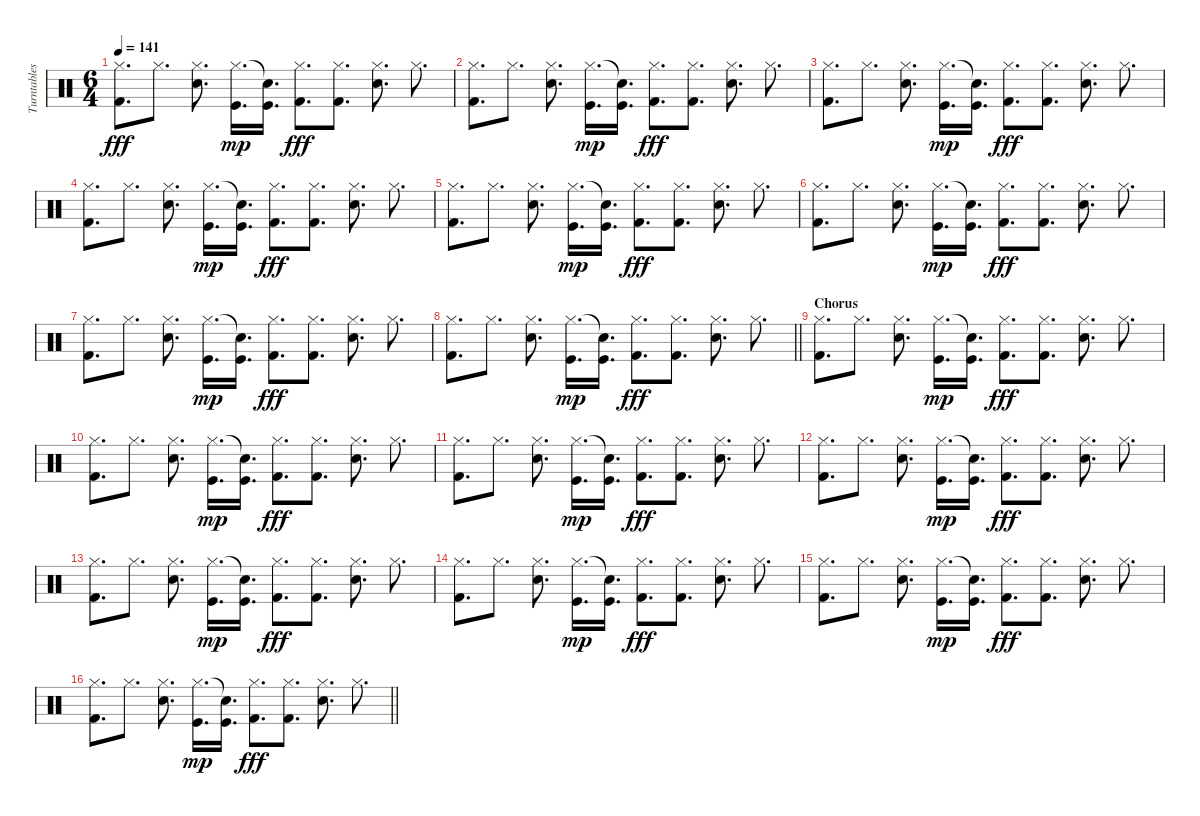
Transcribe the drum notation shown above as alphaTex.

\track ("Turntables" "Turntables") {instrument percussion}
\staff {score}
\articulation defaults
\ts (6 4)
\tempo 141
\clef neutral
\ks c
("Hi-Hat (closed)" "Kick (hit) 2").8{d dy fff} "Hi-Hat (closed)".8{d} ("Hi-Hat (closed)" "Electric Snare (hit)").8{d} ("Hi-Hat (closed)" "Kick (hit)").16{d dy mp} ("Snare (hit)"{t} "Kick (hit)").16{d} ("Hi-Hat (closed)" "Kick (hit) 2").8{d dy fff} ("Hi-Hat (closed)" "Kick (hit) 2").8{d} ("Hi-Hat (closed)" "Electric Snare (hit)").8{d} "Hi-Hat (closed)".8{d} |
("Hi-Hat (closed)" "Kick (hit) 2").8{d} "Hi-Hat (closed)".8{d} ("Hi-Hat (closed)" "Electric Snare (hit)").8{d} ("Hi-Hat (closed)" "Kick (hit)").16{d dy mp} ("Snare (hit)"{t} "Kick (hit)").16{d} ("Hi-Hat (closed)" "Kick (hit) 2").8{d dy fff} ("Hi-Hat (closed)" "Kick (hit) 2").8{d} ("Hi-Hat (closed)" "Electric Snare (hit)").8{d} "Hi-Hat (closed)".8{d} |
("Hi-Hat (closed)" "Kick (hit) 2").8{d} "Hi-Hat (closed)".8{d} ("Hi-Hat (closed)" "Electric Snare (hit)").8{d} ("Hi-Hat (closed)" "Kick (hit)").16{d dy mp} ("Snare (hit)"{t} "Kick (hit)").16{d} ("Hi-Hat (closed)" "Kick (hit) 2").8{d dy fff} ("Hi-Hat (closed)" "Kick (hit) 2").8{d} ("Hi-Hat (closed)" "Electric Snare (hit)").8{d} "Hi-Hat (closed)".8{d} |
("Hi-Hat (closed)" "Kick (hit) 2").8{d} "Hi-Hat (closed)".8{d} ("Hi-Hat (closed)" "Electric Snare (hit)").8{d} ("Hi-Hat (closed)" "Kick (hit)").16{d dy mp} ("Snare (hit)"{t} "Kick (hit)").16{d} ("Hi-Hat (closed)" "Kick (hit) 2").8{d dy fff} ("Hi-Hat (closed)" "Kick (hit) 2").8{d} ("Hi-Hat (closed)" "Electric Snare (hit)").8{d} "Hi-Hat (closed)".8{d} |
("Hi-Hat (closed)" "Kick (hit) 2").8{d} "Hi-Hat (closed)".8{d} ("Hi-Hat (closed)" "Electric Snare (hit)").8{d} ("Hi-Hat (closed)" "Kick (hit)").16{d dy mp} ("Snare (hit)"{t} "Kick (hit)").16{d} ("Hi-Hat (closed)" "Kick (hit) 2").8{d dy fff} ("Hi-Hat (closed)" "Kick (hit) 2").8{d} ("Hi-Hat (closed)" "Electric Snare (hit)").8{d} "Hi-Hat (closed)".8{d} |
("Hi-Hat (closed)" "Kick (hit) 2").8{d} "Hi-Hat (closed)".8{d} ("Hi-Hat (closed)" "Electric Snare (hit)").8{d} ("Hi-Hat (closed)" "Kick (hit)").16{d dy mp} ("Snare (hit)"{t} "Kick (hit)").16{d} ("Hi-Hat (closed)" "Kick (hit) 2").8{d dy fff} ("Hi-Hat (closed)" "Kick (hit) 2").8{d} ("Hi-Hat (closed)" "Electric Snare (hit)").8{d} "Hi-Hat (closed)".8{d} |
("Hi-Hat (closed)" "Kick (hit) 2").8{d} "Hi-Hat (closed)".8{d} ("Hi-Hat (closed)" "Electric Snare (hit)").8{d} ("Hi-Hat (closed)" "Kick (hit)").16{d dy mp} ("Snare (hit)"{t} "Kick (hit)").16{d} ("Hi-Hat (closed)" "Kick (hit) 2").8{d dy fff} ("Hi-Hat (closed)" "Kick (hit) 2").8{d} ("Hi-Hat (closed)" "Electric Snare (hit)").8{d} "Hi-Hat (closed)".8{d} |
\barLineRight lightlight
("Hi-Hat (closed)" "Kick (hit) 2").8{d} "Hi-Hat (closed)".8{d} ("Hi-Hat (closed)" "Electric Snare (hit)").8{d} ("Hi-Hat (closed)" "Kick (hit)").16{d dy mp} ("Snare (hit)"{t} "Kick (hit)").16{d} ("Hi-Hat (closed)" "Kick (hit) 2").8{d dy fff} ("Hi-Hat (closed)" "Kick (hit) 2").8{d} ("Hi-Hat (closed)" "Electric Snare (hit)").8{d} "Hi-Hat (closed)".8{d} |
\section ("" "Chorus")
("Hi-Hat (closed)" "Kick (hit) 2").8{d} "Hi-Hat (closed)".8{d} ("Hi-Hat (closed)" "Electric Snare (hit)").8{d} ("Hi-Hat (closed)" "Kick (hit)").16{d dy mp} ("Snare (hit)"{t} "Kick (hit)").16{d} ("Hi-Hat (closed)" "Kick (hit) 2").8{d dy fff} ("Hi-Hat (closed)" "Kick (hit) 2").8{d} ("Hi-Hat (closed)" "Electric Snare (hit)").8{d} "Hi-Hat (closed)".8{d} |
("Hi-Hat (closed)" "Kick (hit) 2").8{d} "Hi-Hat (closed)".8{d} ("Hi-Hat (closed)" "Electric Snare (hit)").8{d} ("Hi-Hat (closed)" "Kick (hit)").16{d dy mp} ("Snare (hit)"{t} "Kick (hit)").16{d} ("Hi-Hat (closed)" "Kick (hit) 2").8{d dy fff} ("Hi-Hat (closed)" "Kick (hit) 2").8{d} ("Hi-Hat (closed)" "Electric Snare (hit)").8{d} "Hi-Hat (closed)".8{d} |
("Hi-Hat (closed)" "Kick (hit) 2").8{d} "Hi-Hat (closed)".8{d} ("Hi-Hat (closed)" "Electric Snare (hit)").8{d} ("Hi-Hat (closed)" "Kick (hit)").16{d dy mp} ("Snare (hit)"{t} "Kick (hit)").16{d} ("Hi-Hat (closed)" "Kick (hit) 2").8{d dy fff} ("Hi-Hat (closed)" "Kick (hit) 2").8{d} ("Hi-Hat (closed)" "Electric Snare (hit)").8{d} "Hi-Hat (closed)".8{d} |
("Hi-Hat (closed)" "Kick (hit) 2").8{d} "Hi-Hat (closed)".8{d} ("Hi-Hat (closed)" "Electric Snare (hit)").8{d} ("Hi-Hat (closed)" "Kick (hit)").16{d dy mp} ("Snare (hit)"{t} "Kick (hit)").16{d} ("Hi-Hat (closed)" "Kick (hit) 2").8{d dy fff} ("Hi-Hat (closed)" "Kick (hit) 2").8{d} ("Hi-Hat (closed)" "Electric Snare (hit)").8{d} "Hi-Hat (closed)".8{d} |
("Hi-Hat (closed)" "Kick (hit) 2").8{d} "Hi-Hat (closed)".8{d} ("Hi-Hat (closed)" "Electric Snare (hit)").8{d} ("Hi-Hat (closed)" "Kick (hit)").16{d dy mp} ("Snare (hit)"{t} "Kick (hit)").16{d} ("Hi-Hat (closed)" "Kick (hit) 2").8{d dy fff} ("Hi-Hat (closed)" "Kick (hit) 2").8{d} ("Hi-Hat (closed)" "Electric Snare (hit)").8{d} "Hi-Hat (closed)".8{d} |
("Hi-Hat (closed)" "Kick (hit) 2").8{d} "Hi-Hat (closed)".8{d} ("Hi-Hat (closed)" "Electric Snare (hit)").8{d} ("Hi-Hat (closed)" "Kick (hit)").16{d dy mp} ("Snare (hit)"{t} "Kick (hit)").16{d} ("Hi-Hat (closed)" "Kick (hit) 2").8{d dy fff} ("Hi-Hat (closed)" "Kick (hit) 2").8{d} ("Hi-Hat (closed)" "Electric Snare (hit)").8{d} "Hi-Hat (closed)".8{d} |
("Hi-Hat (closed)" "Kick (hit) 2").8{d} "Hi-Hat (closed)".8{d} ("Hi-Hat (closed)" "Electric Snare (hit)").8{d} ("Hi-Hat (closed)" "Kick (hit)").16{d dy mp} ("Snare (hit)"{t} "Kick (hit)").16{d} ("Hi-Hat (closed)" "Kick (hit) 2").8{d dy fff} ("Hi-Hat (closed)" "Kick (hit) 2").8{d} ("Hi-Hat (closed)" "Electric Snare (hit)").8{d} "Hi-Hat (closed)".8{d} |
\barLineRight lightlight
("Hi-Hat (closed)" "Kick (hit) 2").8{d} "Hi-Hat (closed)".8{d} ("Hi-Hat (closed)" "Electric Snare (hit)").8{d} ("Hi-Hat (closed)" "Kick (hit)").16{d dy mp} ("Snare (hit)"{t} "Kick (hit)").16{d} ("Hi-Hat (closed)" "Kick (hit) 2").8{d dy fff} ("Hi-Hat (closed)" "Kick (hit) 2").8{d} ("Hi-Hat (closed)" "Electric Snare (hit)").8{d} "Hi-Hat (closed)".8{d}
